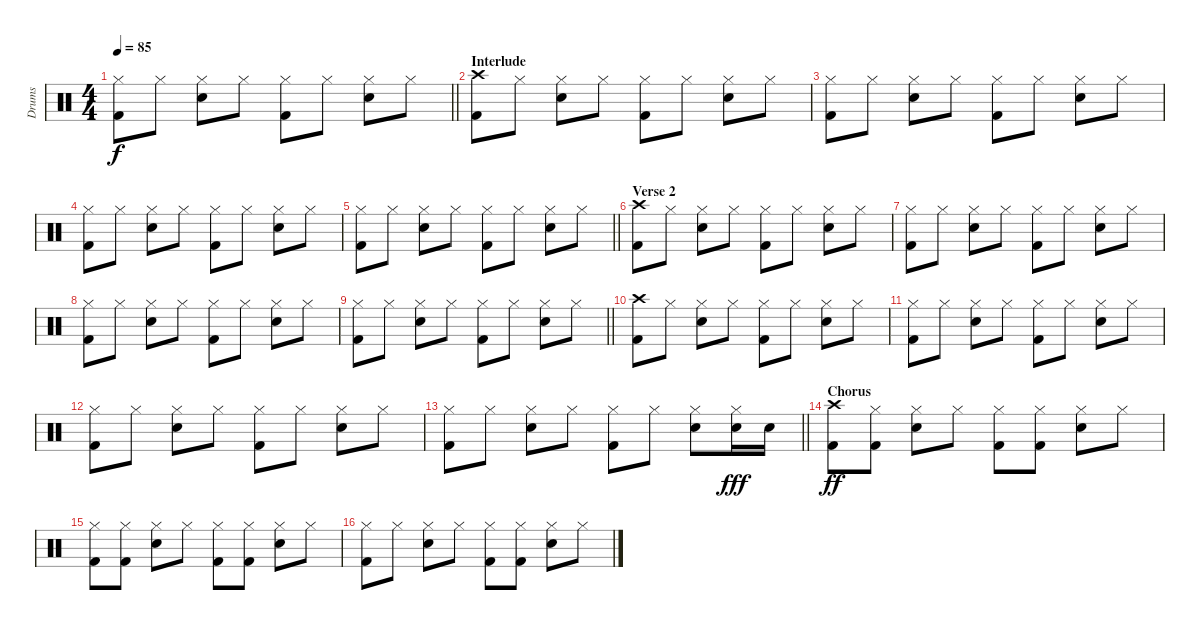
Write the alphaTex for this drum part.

\track ("Drums" "Drums") {instrument percussion}
\staff {score}
\articulation defaults
\ts (4 4)
\tempo 85
\clef neutral
\barLineRight lightlight
\ks c
("Hi-Hat (closed)" "Kick (hit) 2").8{dy f} "Hi-Hat (closed)".8 ("Hi-Hat (closed)" "Snare (hit) 2").8 "Hi-Hat (closed)".8 ("Hi-Hat (closed)" "Kick (hit) 2").8 "Hi-Hat (closed)".8 ("Hi-Hat (closed)" "Snare (hit) 2").8 "Hi-Hat (closed)".8 |
\section ("" "Interlude")
("Crash high (hit)" "Kick (hit) 2").8 "Hi-Hat (closed)".8 ("Hi-Hat (closed)" "Snare (hit) 2").8 "Hi-Hat (closed)".8 ("Hi-Hat (closed)" "Kick (hit) 2").8 "Hi-Hat (closed)".8 ("Hi-Hat (closed)" "Snare (hit) 2").8 "Hi-Hat (closed)".8 |
("Hi-Hat (closed)" "Kick (hit) 2").8 "Hi-Hat (closed)".8 ("Hi-Hat (closed)" "Snare (hit) 2").8 "Hi-Hat (closed)".8 ("Hi-Hat (closed)" "Kick (hit) 2").8 "Hi-Hat (closed)".8 ("Hi-Hat (closed)" "Snare (hit) 2").8 "Hi-Hat (closed)".8 |
("Hi-Hat (closed)" "Kick (hit) 2").8 "Hi-Hat (closed)".8 ("Hi-Hat (closed)" "Snare (hit) 2").8 "Hi-Hat (closed)".8 ("Hi-Hat (closed)" "Kick (hit) 2").8 "Hi-Hat (closed)".8 ("Hi-Hat (closed)" "Snare (hit) 2").8 "Hi-Hat (closed)".8 |
\barLineRight lightlight
("Hi-Hat (closed)" "Kick (hit) 2").8 "Hi-Hat (closed)".8 ("Hi-Hat (closed)" "Snare (hit) 2").8 "Hi-Hat (closed)".8 ("Hi-Hat (closed)" "Kick (hit) 2").8 "Hi-Hat (closed)".8 ("Hi-Hat (closed)" "Snare (hit) 2").8 "Hi-Hat (closed)".8 |
\section ("" "Verse 2")
("Crash high (hit)" "Kick (hit) 2").8 "Hi-Hat (closed)".8 ("Hi-Hat (closed)" "Snare (hit) 2").8 "Hi-Hat (closed)".8 ("Hi-Hat (closed)" "Kick (hit) 2").8 "Hi-Hat (closed)".8 ("Hi-Hat (closed)" "Snare (hit) 2").8 "Hi-Hat (closed)".8 |
("Hi-Hat (closed)" "Kick (hit) 2").8 "Hi-Hat (closed)".8 ("Hi-Hat (closed)" "Snare (hit) 2").8 "Hi-Hat (closed)".8 ("Hi-Hat (closed)" "Kick (hit) 2").8 "Hi-Hat (closed)".8 ("Hi-Hat (closed)" "Snare (hit) 2").8 "Hi-Hat (closed)".8 |
("Hi-Hat (closed)" "Kick (hit) 2").8 "Hi-Hat (closed)".8 ("Hi-Hat (closed)" "Snare (hit) 2").8 "Hi-Hat (closed)".8 ("Hi-Hat (closed)" "Kick (hit) 2").8 "Hi-Hat (closed)".8 ("Hi-Hat (closed)" "Snare (hit) 2").8 "Hi-Hat (closed)".8 |
\barLineRight lightlight
("Hi-Hat (closed)" "Kick (hit) 2").8 "Hi-Hat (closed)".8 ("Hi-Hat (closed)" "Snare (hit) 2").8 "Hi-Hat (closed)".8 ("Hi-Hat (closed)" "Kick (hit) 2").8 "Hi-Hat (closed)".8 ("Hi-Hat (closed)" "Snare (hit) 2").8 "Hi-Hat (closed)".8 |
("Crash high (hit)" "Kick (hit) 2").8 "Hi-Hat (closed)".8 ("Hi-Hat (closed)" "Snare (hit) 2").8 "Hi-Hat (closed)".8 ("Hi-Hat (closed)" "Kick (hit) 2").8 "Hi-Hat (closed)".8 ("Hi-Hat (closed)" "Snare (hit) 2").8 "Hi-Hat (closed)".8 |
("Hi-Hat (closed)" "Kick (hit) 2").8 "Hi-Hat (closed)".8 ("Hi-Hat (closed)" "Snare (hit) 2").8 "Hi-Hat (closed)".8 ("Hi-Hat (closed)" "Kick (hit) 2").8 "Hi-Hat (closed)".8 ("Hi-Hat (closed)" "Snare (hit) 2").8 "Hi-Hat (closed)".8 |
("Hi-Hat (closed)" "Kick (hit) 2").8 "Hi-Hat (closed)".8 ("Hi-Hat (closed)" "Snare (hit) 2").8 "Hi-Hat (closed)".8 ("Hi-Hat (closed)" "Kick (hit) 2").8 "Hi-Hat (closed)".8 ("Hi-Hat (closed)" "Snare (hit) 2").8 "Hi-Hat (closed)".8 |
\barLineRight lightlight
("Hi-Hat (closed)" "Kick (hit) 2").8 "Hi-Hat (closed)".8 ("Hi-Hat (closed)" "Snare (hit) 2").8 "Hi-Hat (closed)".8 ("Hi-Hat (closed)" "Kick (hit) 2").8 "Hi-Hat (closed)".8 ("Hi-Hat (closed)" "Snare (hit) 2").8 ("Hi-Hat (closed)" "Snare (hit) 2").16{dy fff} "Snare (hit) 2".16 |
\section ("" "Chorus")
("Crash high (hit)" "Kick (hit) 2").8{dy ff} ("Hi-Hat (closed)" "Kick (hit) 2").8 ("Hi-Hat (closed)" "Snare (hit) 2").8 "Hi-Hat (closed)".8 ("Hi-Hat (closed)" "Kick (hit) 2").8 ("Hi-Hat (closed)" "Kick (hit) 2").8 ("Hi-Hat (closed)" "Snare (hit) 2").8 "Hi-Hat (closed)".8 |
("Hi-Hat (closed)" "Kick (hit) 2").8 ("Hi-Hat (closed)" "Kick (hit) 2").8 ("Hi-Hat (closed)" "Snare (hit) 2").8 "Hi-Hat (closed)".8 ("Hi-Hat (closed)" "Kick (hit) 2").8 ("Hi-Hat (closed)" "Kick (hit) 2").8 ("Hi-Hat (closed)" "Snare (hit) 2").8 "Hi-Hat (closed)".8 |
("Hi-Hat (closed)" "Kick (hit) 2").8 "Hi-Hat (closed)".8 ("Hi-Hat (closed)" "Snare (hit) 2").8 "Hi-Hat (closed)".8 ("Hi-Hat (closed)" "Kick (hit) 2").8 ("Hi-Hat (closed)" "Kick (hit) 2").8 ("Hi-Hat (closed)" "Snare (hit) 2").8 "Hi-Hat (closed)".8
